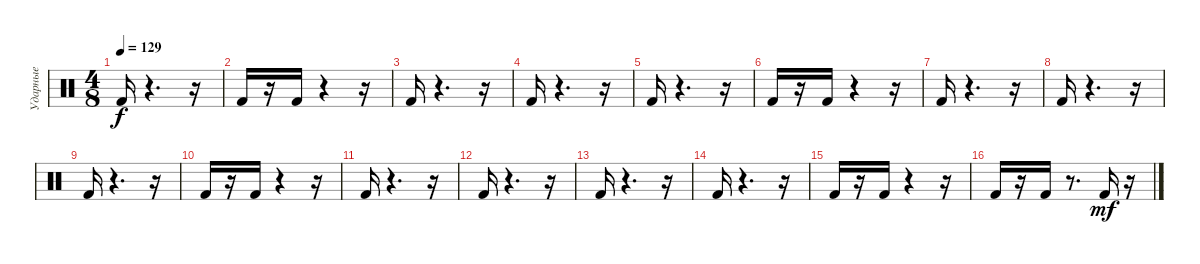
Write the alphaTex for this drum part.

\track ("Ударные" "Ударные") {instrument percussion}
\staff {score}
\articulation defaults
\ts (4 8)
\tempo 129
\clef neutral
\ks c "Kick (hit) 2".16{dy f}
r.4{d} r.16 |
"Kick (hit) 2".16 r.16 "Kick (hit) 2".16 r.4 r.16 |
"Kick (hit) 2".16 r.4{d} r.16 |
"Kick (hit) 2".16 r.4{d} r.16 |
"Kick (hit) 2".16 r.4{d} r.16 |
"Kick (hit) 2".16 r.16 "Kick (hit) 2".16 r.4 r.16 |
"Kick (hit) 2".16 r.4{d} r.16 |
"Kick (hit) 2".16 r.4{d} r.16 |
"Kick (hit) 2".16 r.4{d} r.16 |
"Kick (hit) 2".16 r.16 "Kick (hit) 2".16 r.4 r.16 |
"Kick (hit) 2".16 r.4{d} r.16 |
"Kick (hit) 2".16 r.4{d} r.16 |
"Kick (hit) 2".16 r.4{d} r.16 |
"Kick (hit) 2".16 r.4{d} r.16 |
"Kick (hit) 2".16 r.16 "Kick (hit) 2".16 r.4 r.16 |
"Kick (hit) 2".16 r.16 "Kick (hit) 2".16 r.8{d} "Kick (hit) 2".16{dy mf} r.16
